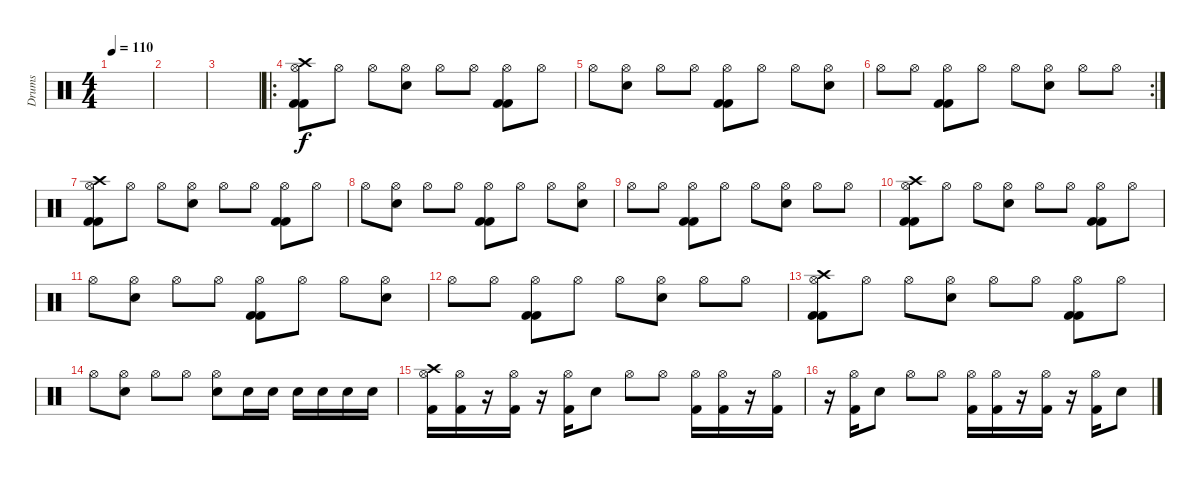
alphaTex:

\track ("Drums" "Drums") {instrument percussion}
\staff {score}
\articulation defaults
\ts (4 4)
\tempo 110
\clef neutral
\ks c
|
|
|
\ro
("Crash high (hit)" "Hi-Hat (open)" "Kick (hit) 2" "Kick (hit) 2").8 "Hi-Hat (open)".8 "Hi-Hat (open)".8 ("Hi-Hat (open)" "Electric Snare (hit)").8 "Hi-Hat (open)".8 "Hi-Hat (open)".8 ("Hi-Hat (open)" "Kick (hit) 2" "Kick (hit) 2").8 "Hi-Hat (open)".8 |
"Hi-Hat (open)".8 ("Hi-Hat (open)" "Electric Snare (hit)").8 "Hi-Hat (open)".8 "Hi-Hat (open)".8 ("Hi-Hat (open)" "Kick (hit) 2" "Kick (hit) 2").8 "Hi-Hat (open)".8 "Hi-Hat (open)".8 ("Hi-Hat (open)" "Electric Snare (hit)").8 |
\rc 2 "Hi-Hat (open)".8 "Hi-Hat (open)".8
("Hi-Hat (open)" "Kick (hit) 2" "Kick (hit) 2").8 "Hi-Hat (open)".8 "Hi-Hat (open)".8 ("Hi-Hat (open)" "Electric Snare (hit)").8 "Hi-Hat (open)".8 "Hi-Hat (open)".8 |
("Crash high (hit)" "Hi-Hat (open)" "Kick (hit) 2" "Kick (hit) 2").8 "Hi-Hat (open)".8 "Hi-Hat (open)".8 ("Hi-Hat (open)" "Electric Snare (hit)").8 "Hi-Hat (open)".8 "Hi-Hat (open)".8 ("Hi-Hat (open)" "Kick (hit) 2" "Kick (hit) 2").8 "Hi-Hat (open)".8 |
"Hi-Hat (open)".8 ("Hi-Hat (open)" "Electric Snare (hit)").8 "Hi-Hat (open)".8 "Hi-Hat (open)".8 ("Hi-Hat (open)" "Kick (hit) 2" "Kick (hit) 2").8 "Hi-Hat (open)".8 "Hi-Hat (open)".8 ("Hi-Hat (open)" "Electric Snare (hit)").8 |
"Hi-Hat (open)".8 "Hi-Hat (open)".8 ("Hi-Hat (open)" "Kick (hit) 2" "Kick (hit) 2").8 "Hi-Hat (open)".8 "Hi-Hat (open)".8 ("Hi-Hat (open)" "Electric Snare (hit)").8 "Hi-Hat (open)".8 "Hi-Hat (open)".8 |
("Crash high (hit)" "Hi-Hat (open)" "Kick (hit) 2" "Kick (hit) 2").8 "Hi-Hat (open)".8 "Hi-Hat (open)".8 ("Hi-Hat (open)" "Electric Snare (hit)").8 "Hi-Hat (open)".8 "Hi-Hat (open)".8 ("Hi-Hat (open)" "Kick (hit) 2" "Kick (hit) 2").8 "Hi-Hat (open)".8 |
"Hi-Hat (open)".8 ("Hi-Hat (open)" "Electric Snare (hit)").8 "Hi-Hat (open)".8 "Hi-Hat (open)".8 ("Hi-Hat (open)" "Kick (hit) 2" "Kick (hit) 2").8 "Hi-Hat (open)".8 "Hi-Hat (open)".8 ("Hi-Hat (open)" "Electric Snare (hit)").8 |
"Hi-Hat (open)".8 "Hi-Hat (open)".8 ("Hi-Hat (open)" "Kick (hit) 2" "Kick (hit) 2").8 "Hi-Hat (open)".8 "Hi-Hat (open)".8 ("Hi-Hat (open)" "Electric Snare (hit)").8 "Hi-Hat (open)".8 "Hi-Hat (open)".8 |
("Crash high (hit)" "Hi-Hat (open)" "Kick (hit) 2" "Kick (hit) 2").8 "Hi-Hat (open)".8 "Hi-Hat (open)".8 ("Hi-Hat (open)" "Electric Snare (hit)").8 "Hi-Hat (open)".8 "Hi-Hat (open)".8 ("Hi-Hat (open)" "Kick (hit) 2" "Kick (hit) 2").8 "Hi-Hat (open)".8 |
"Hi-Hat (open)".8 ("Hi-Hat (open)" "Electric Snare (hit)").8 "Hi-Hat (open)".8 "Hi-Hat (open)".8 ("Hi-Hat (open)" "Electric Snare (hit)").8 "Electric Snare (hit)".16 "Electric Snare (hit)".16 "Electric Snare (hit)".16 "Electric Snare (hit)".16 "Electric Snare (hit)".16 "Electric Snare (hit)".16 |
("Crash high (hit)" "Hi-Hat (open)" "Kick (hit) 2").16 ("Hi-Hat (open)" "Kick (hit) 2").16 r.16 ("Hi-Hat (open)" "Kick (hit) 2").16 r.16 ("Hi-Hat (open)" "Kick (hit) 2").16 "Electric Snare (hit)".8 "Hi-Hat (open)".8 "Hi-Hat (open)".8 ("Hi-Hat (open)" "Kick (hit) 2").16 ("Hi-Hat (open)" "Kick (hit) 2").16 r.16 ("Hi-Hat (open)" "Kick (hit) 2").16 |
r.16 ("Hi-Hat (open)" "Kick (hit) 2").16 "Electric Snare (hit)".8 "Hi-Hat (open)".8 "Hi-Hat (open)".8 ("Hi-Hat (open)" "Kick (hit) 2").16 ("Hi-Hat (open)" "Kick (hit) 2").16 r.16 ("Hi-Hat (open)" "Kick (hit) 2").16 r.16 ("Hi-Hat (open)" "Kick (hit) 2").16 "Electric Snare (hit)".8
